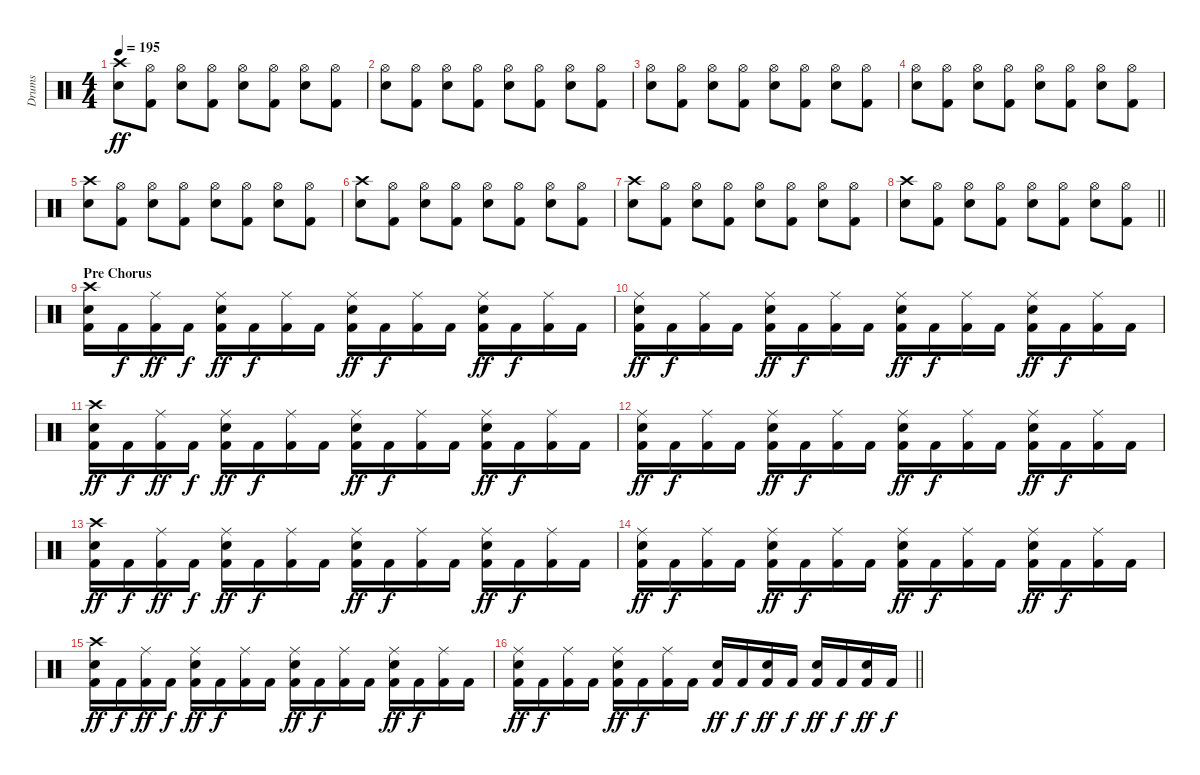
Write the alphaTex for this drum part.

\track ("Drums" "Drums") {instrument percussion}
\staff {score}
\articulation defaults
\ts (4 4)
\tempo 195
\clef neutral
\ks c
("Crash high (hit)" "Snare (hit) 2").8{dy ff} ("Hi-Hat (open)" "Kick (hit) 2").8 ("Hi-Hat (open)" "Snare (hit) 2").8 ("Hi-Hat (open)" "Kick (hit) 2").8 ("Hi-Hat (open)" "Snare (hit) 2").8 ("Hi-Hat (open)" "Kick (hit) 2").8 ("Hi-Hat (open)" "Snare (hit) 2").8 ("Hi-Hat (open)" "Kick (hit) 2").8 |
("Hi-Hat (open)" "Snare (hit) 2").8 ("Hi-Hat (open)" "Kick (hit) 2").8 ("Hi-Hat (open)" "Snare (hit) 2").8 ("Hi-Hat (open)" "Kick (hit) 2").8 ("Hi-Hat (open)" "Snare (hit) 2").8 ("Hi-Hat (open)" "Kick (hit) 2").8 ("Hi-Hat (open)" "Snare (hit) 2").8 ("Hi-Hat (open)" "Kick (hit) 2").8 |
("Hi-Hat (open)" "Snare (hit) 2").8 ("Hi-Hat (open)" "Kick (hit) 2").8 ("Hi-Hat (open)" "Snare (hit) 2").8 ("Hi-Hat (open)" "Kick (hit) 2").8 ("Hi-Hat (open)" "Snare (hit) 2").8 ("Hi-Hat (open)" "Kick (hit) 2").8 ("Hi-Hat (open)" "Snare (hit) 2").8 ("Hi-Hat (open)" "Kick (hit) 2").8 |
("Hi-Hat (open)" "Snare (hit) 2").8 ("Hi-Hat (open)" "Kick (hit) 2").8 ("Hi-Hat (open)" "Snare (hit) 2").8 ("Hi-Hat (open)" "Kick (hit) 2").8 ("Hi-Hat (open)" "Snare (hit) 2").8 ("Hi-Hat (open)" "Kick (hit) 2").8 ("Hi-Hat (open)" "Snare (hit) 2").8 ("Hi-Hat (open)" "Kick (hit) 2").8 |
("Crash high (hit)" "Snare (hit) 2").8 ("Hi-Hat (open)" "Kick (hit) 2").8 ("Hi-Hat (open)" "Snare (hit) 2").8 ("Hi-Hat (open)" "Kick (hit) 2").8 ("Hi-Hat (open)" "Snare (hit) 2").8 ("Hi-Hat (open)" "Kick (hit) 2").8 ("Hi-Hat (open)" "Snare (hit) 2").8 ("Hi-Hat (open)" "Kick (hit) 2").8 |
("Crash high (hit)" "Snare (hit) 2").8 ("Hi-Hat (open)" "Kick (hit) 2").8 ("Hi-Hat (open)" "Snare (hit) 2").8 ("Hi-Hat (open)" "Kick (hit) 2").8 ("Hi-Hat (open)" "Snare (hit) 2").8 ("Hi-Hat (open)" "Kick (hit) 2").8 ("Hi-Hat (open)" "Snare (hit) 2").8 ("Hi-Hat (open)" "Kick (hit) 2").8 |
("Crash high (hit)" "Snare (hit) 2").8 ("Hi-Hat (open)" "Kick (hit) 2").8 ("Hi-Hat (open)" "Snare (hit) 2").8 ("Hi-Hat (open)" "Kick (hit) 2").8 ("Hi-Hat (open)" "Snare (hit) 2").8 ("Hi-Hat (open)" "Kick (hit) 2").8 ("Hi-Hat (open)" "Snare (hit) 2").8 ("Hi-Hat (open)" "Kick (hit) 2").8 |
\barLineRight lightlight
("Crash high (hit)" "Snare (hit) 2").8 ("Hi-Hat (open)" "Kick (hit) 2").8 ("Hi-Hat (open)" "Snare (hit) 2").8 ("Hi-Hat (open)" "Kick (hit) 2").8 ("Hi-Hat (open)" "Snare (hit) 2").8 ("Hi-Hat (open)" "Kick (hit) 2").8 ("Hi-Hat (open)" "Snare (hit) 2").8 ("Hi-Hat (open)" "Kick (hit) 2").8 |
\section ("" "Pre Chorus")
("Crash high (hit)" "Snare (hit) 2" "Kick (hit) 2").16 "Kick (hit) 2".16{dy f} ("Ride (middle)" "Kick (hit) 2").16{dy ff} "Kick (hit) 2".16{dy f} ("Ride (middle)" "Snare (hit) 2" "Kick (hit) 2").16{dy ff} "Kick (hit) 2".16{dy f} ("Ride (middle)" "Kick (hit) 2").16 "Kick (hit) 2".16 ("Ride (middle)" "Snare (hit) 2" "Kick (hit) 2").16{dy ff} "Kick (hit) 2".16{dy f} ("Ride (middle)" "Kick (hit) 2").16 "Kick (hit) 2".16 ("Ride (middle)" "Snare (hit) 2" "Kick (hit) 2").16{dy ff} "Kick (hit) 2".16{dy f} ("Ride (middle)" "Kick (hit) 2").16 "Kick (hit) 2".16 |
("Ride (middle)" "Snare (hit) 2" "Kick (hit) 2").16{dy ff} "Kick (hit) 2".16{dy f} ("Ride (middle)" "Kick (hit) 2").16 "Kick (hit) 2".16 ("Ride (middle)" "Snare (hit) 2" "Kick (hit) 2").16{dy ff} "Kick (hit) 2".16{dy f} ("Ride (middle)" "Kick (hit) 2").16 "Kick (hit) 2".16 ("Ride (middle)" "Snare (hit) 2" "Kick (hit) 2").16{dy ff} "Kick (hit) 2".16{dy f} ("Ride (middle)" "Kick (hit) 2").16 "Kick (hit) 2".16 ("Ride (middle)" "Snare (hit) 2" "Kick (hit) 2").16{dy ff} "Kick (hit) 2".16{dy f} ("Ride (middle)" "Kick (hit) 2").16 "Kick (hit) 2".16 |
("Crash high (hit)" "Snare (hit) 2" "Kick (hit) 2").16{dy ff} "Kick (hit) 2".16{dy f} ("Ride (middle)" "Kick (hit) 2").16{dy ff} "Kick (hit) 2".16{dy f} ("Ride (middle)" "Snare (hit) 2" "Kick (hit) 2").16{dy ff} "Kick (hit) 2".16{dy f} ("Ride (middle)" "Kick (hit) 2").16 "Kick (hit) 2".16 ("Ride (middle)" "Snare (hit) 2" "Kick (hit) 2").16{dy ff} "Kick (hit) 2".16{dy f} ("Ride (middle)" "Kick (hit) 2").16 "Kick (hit) 2".16 ("Ride (middle)" "Snare (hit) 2" "Kick (hit) 2").16{dy ff} "Kick (hit) 2".16{dy f} ("Ride (middle)" "Kick (hit) 2").16 "Kick (hit) 2".16 |
("Ride (middle)" "Snare (hit) 2" "Kick (hit) 2").16{dy ff} "Kick (hit) 2".16{dy f} ("Ride (middle)" "Kick (hit) 2").16 "Kick (hit) 2".16 ("Ride (middle)" "Snare (hit) 2" "Kick (hit) 2").16{dy ff} "Kick (hit) 2".16{dy f} ("Ride (middle)" "Kick (hit) 2").16 "Kick (hit) 2".16 ("Ride (middle)" "Snare (hit) 2" "Kick (hit) 2").16{dy ff} "Kick (hit) 2".16{dy f} ("Ride (middle)" "Kick (hit) 2").16 "Kick (hit) 2".16 ("Ride (middle)" "Snare (hit) 2" "Kick (hit) 2").16{dy ff} "Kick (hit) 2".16{dy f} ("Ride (middle)" "Kick (hit) 2").16 "Kick (hit) 2".16 |
("Crash high (hit)" "Snare (hit) 2" "Kick (hit) 2").16{dy ff} "Kick (hit) 2".16{dy f} ("Ride (middle)" "Kick (hit) 2").16{dy ff} "Kick (hit) 2".16{dy f} ("Ride (middle)" "Snare (hit) 2" "Kick (hit) 2").16{dy ff} "Kick (hit) 2".16{dy f} ("Ride (middle)" "Kick (hit) 2").16 "Kick (hit) 2".16 ("Ride (middle)" "Snare (hit) 2" "Kick (hit) 2").16{dy ff} "Kick (hit) 2".16{dy f} ("Ride (middle)" "Kick (hit) 2").16 "Kick (hit) 2".16 ("Ride (middle)" "Snare (hit) 2" "Kick (hit) 2").16{dy ff} "Kick (hit) 2".16{dy f} ("Ride (middle)" "Kick (hit) 2").16 "Kick (hit) 2".16 |
("Ride (middle)" "Snare (hit) 2" "Kick (hit) 2").16{dy ff} "Kick (hit) 2".16{dy f} ("Ride (middle)" "Kick (hit) 2").16 "Kick (hit) 2".16 ("Ride (middle)" "Snare (hit) 2" "Kick (hit) 2").16{dy ff} "Kick (hit) 2".16{dy f} ("Ride (middle)" "Kick (hit) 2").16 "Kick (hit) 2".16 ("Ride (middle)" "Snare (hit) 2" "Kick (hit) 2").16{dy ff} "Kick (hit) 2".16{dy f} ("Ride (middle)" "Kick (hit) 2").16 "Kick (hit) 2".16 ("Ride (middle)" "Snare (hit) 2" "Kick (hit) 2").16{dy ff} "Kick (hit) 2".16{dy f} ("Ride (middle)" "Kick (hit) 2").16 "Kick (hit) 2".16 |
("Crash high (hit)" "Snare (hit) 2" "Kick (hit) 2").16{dy ff} "Kick (hit) 2".16{dy f} ("Ride (middle)" "Kick (hit) 2").16{dy ff} "Kick (hit) 2".16{dy f} ("Ride (middle)" "Snare (hit) 2" "Kick (hit) 2").16{dy ff} "Kick (hit) 2".16{dy f} ("Ride (middle)" "Kick (hit) 2").16 "Kick (hit) 2".16 ("Ride (middle)" "Snare (hit) 2" "Kick (hit) 2").16{dy ff} "Kick (hit) 2".16{dy f} ("Ride (middle)" "Kick (hit) 2").16 "Kick (hit) 2".16 ("Ride (middle)" "Snare (hit) 2" "Kick (hit) 2").16{dy ff} "Kick (hit) 2".16{dy f} ("Ride (middle)" "Kick (hit) 2").16 "Kick (hit) 2".16 |
\barLineRight lightlight
("Ride (middle)" "Snare (hit) 2" "Kick (hit) 2").16{dy ff} "Kick (hit) 2".16{dy f} ("Ride (middle)" "Kick (hit) 2").16 "Kick (hit) 2".16 ("Ride (middle)" "Snare (hit) 2" "Kick (hit) 2").16{dy ff} "Kick (hit) 2".16{dy f} ("Ride (middle)" "Kick (hit) 2").16 "Kick (hit) 2".16 ("Snare (hit) 2" "Kick (hit) 2").16{dy ff} "Kick (hit) 2".16{dy f} ("Snare (hit) 2" "Kick (hit) 2").16{dy ff} "Kick (hit) 2".16{dy f} ("Snare (hit) 2" "Kick (hit) 2").16{dy ff} "Kick (hit) 2".16{dy f} ("Snare (hit) 2" "Kick (hit) 2").16{dy ff} "Kick (hit) 2".16{dy f}
